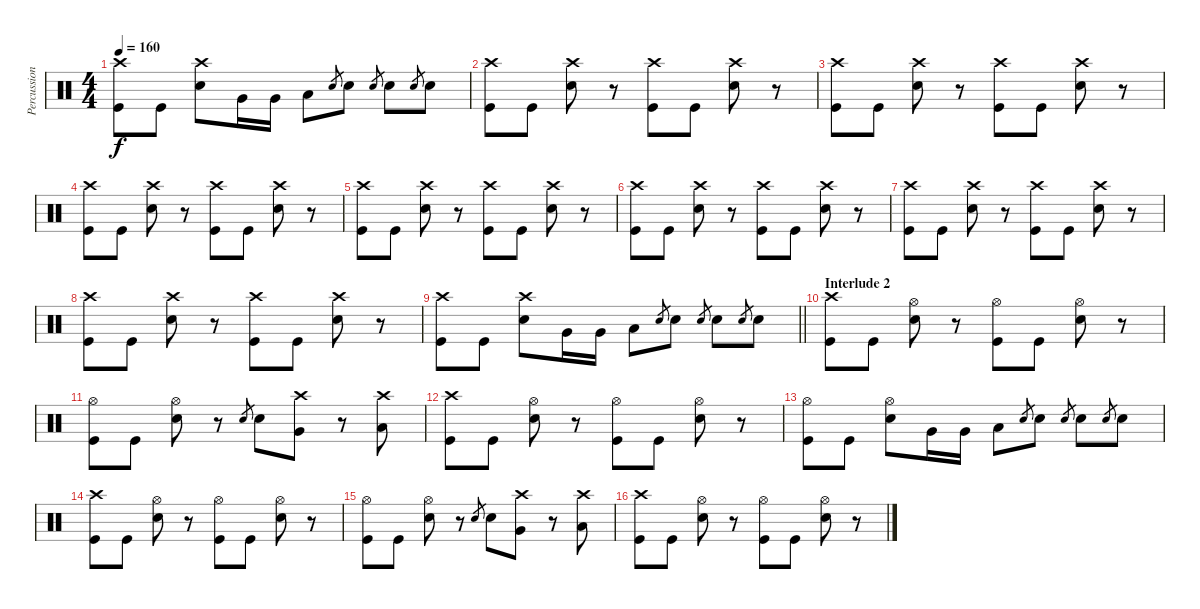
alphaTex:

\track ("Percussion" "Percussion") {instrument percussion}
\staff {score}
\articulation defaults
\ts (4 4)
\tempo 160
\clef neutral
\ks c
("Crash high (hit)" "Kick (hit)").8{dy f} "Kick (hit)".8 ("Crash high (hit)" "Electric Snare (hit)").8 "Very Low Tom (hit)".16 "Very Low Tom (hit)".16 "Low Floor Tom (hit)".8 "Electric Snare (hit)".8{gr} "Electric Snare (hit)".8 "Electric Snare (hit)".8{gr} "Electric Snare (hit)".8 "Electric Snare (hit)".8{gr} "Electric Snare (hit)".8 |
("Crash high (hit)" "Kick (hit)").8 "Kick (hit)".8 ("Crash high (hit)" "Electric Snare (hit)").8 r.8 ("Crash high (hit)" "Kick (hit)").8 "Kick (hit)".8 ("Crash high (hit)" "Electric Snare (hit)").8 r.8 |
("Crash high (hit)" "Kick (hit)").8 "Kick (hit)".8 ("Crash high (hit)" "Electric Snare (hit)").8 r.8 ("Crash high (hit)" "Kick (hit)").8 "Kick (hit)".8 ("Crash high (hit)" "Electric Snare (hit)").8 r.8 |
("Crash high (hit)" "Kick (hit)").8 "Kick (hit)".8 ("Crash high (hit)" "Electric Snare (hit)").8 r.8 ("Crash high (hit)" "Kick (hit)").8 "Kick (hit)".8 ("Crash high (hit)" "Electric Snare (hit)").8 r.8 |
("Crash high (hit)" "Kick (hit)").8 "Kick (hit)".8 ("Crash high (hit)" "Electric Snare (hit)").8 r.8 ("Crash high (hit)" "Kick (hit)").8 "Kick (hit)".8 ("Crash high (hit)" "Electric Snare (hit)").8 r.8 |
("Crash high (hit)" "Kick (hit)").8 "Kick (hit)".8 ("Crash high (hit)" "Electric Snare (hit)").8 r.8 ("Crash high (hit)" "Kick (hit)").8 "Kick (hit)".8 ("Crash high (hit)" "Electric Snare (hit)").8 r.8 |
("Crash high (hit)" "Kick (hit)").8 "Kick (hit)".8 ("Crash high (hit)" "Electric Snare (hit)").8 r.8 ("Crash high (hit)" "Kick (hit)").8 "Kick (hit)".8 ("Crash high (hit)" "Electric Snare (hit)").8 r.8 |
("Crash high (hit)" "Kick (hit)").8 "Kick (hit)".8 ("Crash high (hit)" "Electric Snare (hit)").8 r.8 ("Crash high (hit)" "Kick (hit)").8 "Kick (hit)".8 ("Crash high (hit)" "Electric Snare (hit)").8 r.8 |
\barLineRight lightlight
("Crash high (hit)" "Kick (hit)").8 "Kick (hit)".8 ("Crash high (hit)" "Electric Snare (hit)").8 "Very Low Tom (hit)".16 "Very Low Tom (hit)".16 "Low Floor Tom (hit)".8 "Electric Snare (hit)".8{gr} "Electric Snare (hit)".8 "Electric Snare (hit)".8{gr} "Electric Snare (hit)".8 "Electric Snare (hit)".8{gr} "Electric Snare (hit)".8 |
\section ("" "Interlude 2")
("Crash high (hit)" "Kick (hit)").8 "Kick (hit)".8 ("Hi-Hat (open)" "Electric Snare (hit)").8 r.8 ("Hi-Hat (open)" "Kick (hit)").8 "Kick (hit)".8 ("Hi-Hat (open)" "Electric Snare (hit)").8 r.8 |
("Hi-Hat (open)" "Kick (hit)").8 "Kick (hit)".8 ("Hi-Hat (open)" "Electric Snare (hit)").8 r.8 "Electric Snare (hit)".8{gr} "Electric Snare (hit)".8 ("Crash high (hit)" "Very Low Tom (hit)").8 r.8 ("Crash high (hit)" "Low Floor Tom (hit)").8 |
("Crash high (hit)" "Kick (hit)").8 "Kick (hit)".8 ("Hi-Hat (open)" "Electric Snare (hit)").8 r.8 ("Hi-Hat (open)" "Kick (hit)").8 "Kick (hit)".8 ("Hi-Hat (open)" "Electric Snare (hit)").8 r.8 |
("Hi-Hat (open)" "Kick (hit)").8 "Kick (hit)".8 ("Hi-Hat (open)" "Electric Snare (hit)").8 "Very Low Tom (hit)".16 "Very Low Tom (hit)".16 "Low Floor Tom (hit)".8 "Electric Snare (hit)".8{gr} "Electric Snare (hit)".8 "Electric Snare (hit)".8{gr} "Electric Snare (hit)".8 "Electric Snare (hit)".8{gr} "Electric Snare (hit)".8 |
("Crash high (hit)" "Kick (hit)").8 "Kick (hit)".8 ("Hi-Hat (open)" "Electric Snare (hit)").8 r.8 ("Hi-Hat (open)" "Kick (hit)").8 "Kick (hit)".8 ("Hi-Hat (open)" "Electric Snare (hit)").8 r.8 |
("Hi-Hat (open)" "Kick (hit)").8 "Kick (hit)".8 ("Hi-Hat (open)" "Electric Snare (hit)").8 r.8 "Electric Snare (hit)".8{gr} "Electric Snare (hit)".8 ("Crash high (hit)" "Very Low Tom (hit)").8 r.8 ("Crash high (hit)" "Low Floor Tom (hit)").8 |
("Crash high (hit)" "Kick (hit)").8 "Kick (hit)".8 ("Hi-Hat (open)" "Electric Snare (hit)").8 r.8 ("Hi-Hat (open)" "Kick (hit)").8 "Kick (hit)".8 ("Hi-Hat (open)" "Electric Snare (hit)").8 r.8
